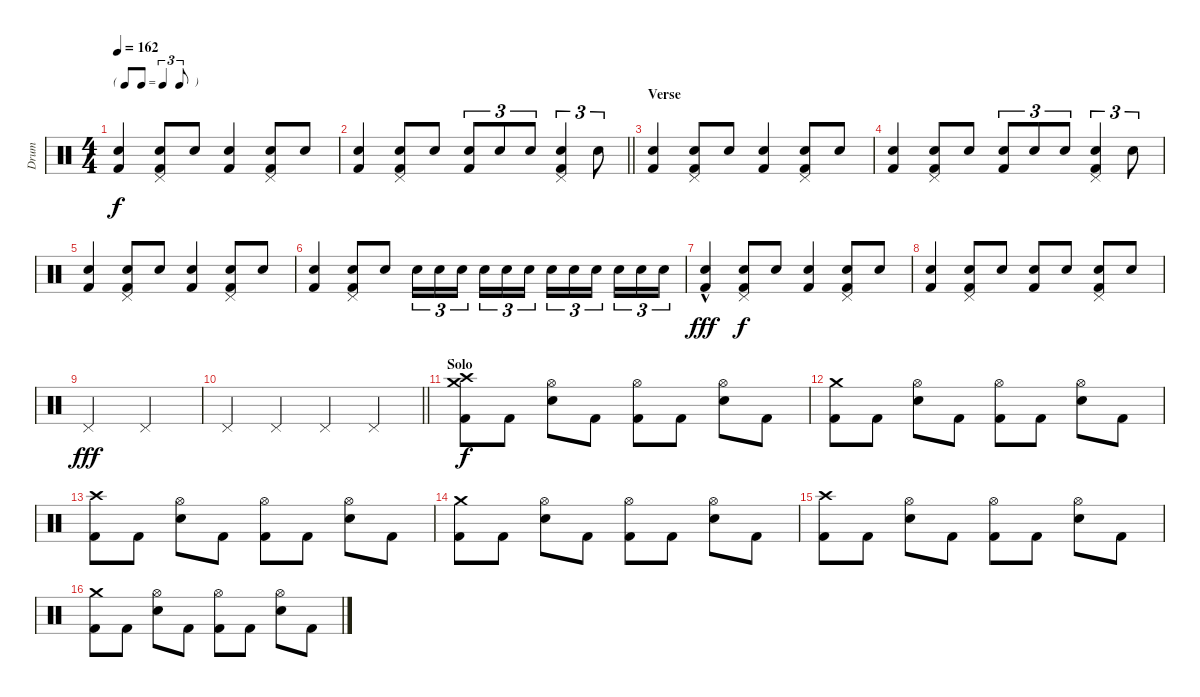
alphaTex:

\track ("Drum" "Drum") {instrument percussion}
\staff {score}
\articulation defaults
\ts (4 4)
\tf triplet8th
\tempo 162
\clef neutral
\ks c
("Snare (hit) 2" "Kick (hit) 2").4{dy f} ("Pedal Hi-Hat (hit)" "Snare (hit) 2" "Kick (hit) 2").8 "Snare (hit) 2".8 ("Snare (hit) 2" "Kick (hit) 2").4 ("Pedal Hi-Hat (hit)" "Snare (hit) 2" "Kick (hit) 2").8 "Snare (hit) 2".8 |
\barLineRight lightlight
("Snare (hit) 2" "Kick (hit) 2").4 ("Pedal Hi-Hat (hit)" "Snare (hit) 2" "Kick (hit) 2").8 "Snare (hit) 2".8 ("Snare (hit) 2" "Kick (hit) 2").8{tu (3 2)} "Snare (hit) 2".8{tu (3 2)} "Snare (hit) 2".8{tu (3 2)} ("Pedal Hi-Hat (hit)" "Snare (hit) 2" "Kick (hit) 2").4{tu (3 2)} "Snare (hit) 2".8{tu (3 2)} |
\section ("" "Verse")
("Snare (hit) 2" "Kick (hit) 2").4 ("Pedal Hi-Hat (hit)" "Snare (hit) 2" "Kick (hit) 2").8 "Snare (hit) 2".8 ("Snare (hit) 2" "Kick (hit) 2").4 ("Pedal Hi-Hat (hit)" "Snare (hit) 2" "Kick (hit) 2").8 "Snare (hit) 2".8 |
("Snare (hit) 2" "Kick (hit) 2").4 ("Pedal Hi-Hat (hit)" "Snare (hit) 2" "Kick (hit) 2").8 "Snare (hit) 2".8 ("Snare (hit) 2" "Kick (hit) 2").8{tu (3 2)} "Snare (hit) 2".8{tu (3 2)} "Snare (hit) 2".8{tu (3 2)} ("Pedal Hi-Hat (hit)" "Snare (hit) 2" "Kick (hit) 2").4{tu (3 2)} "Snare (hit) 2".8{tu (3 2)} |
("Snare (hit) 2" "Kick (hit) 2").4 ("Pedal Hi-Hat (hit)" "Snare (hit) 2" "Kick (hit) 2").8 "Snare (hit) 2".8 ("Snare (hit) 2" "Kick (hit) 2").4 ("Pedal Hi-Hat (hit)" "Snare (hit) 2" "Kick (hit) 2").8 "Snare (hit) 2".8 |
("Snare (hit) 2" "Kick (hit) 2").4 ("Pedal Hi-Hat (hit)" "Snare (hit) 2" "Kick (hit) 2").8 "Snare (hit) 2".8 "Snare (hit) 2".16{tu (3 2)} "Snare (hit) 2".16{tu (3 2)} "Snare (hit) 2".16{tu (3 2) beam splitsecondary} "Snare (hit) 2".16{tu (3 2)} "Snare (hit) 2".16{tu (3 2)} "Snare (hit) 2".16{tu (3 2)} "Snare (hit) 2".16{tu (3 2)} "Snare (hit) 2".16{tu (3 2)} "Snare (hit) 2".16{tu (3 2) beam splitsecondary} "Snare (hit) 2".16{tu (3 2)} "Snare (hit) 2".16{tu (3 2)} "Snare (hit) 2".16{tu (3 2)} |
("Snare (hit) 2"{hac} "Kick (hit) 2"{hac}).4{dy fff} ("Pedal Hi-Hat (hit)" "Snare (hit) 2" "Kick (hit) 2").8{dy f} "Snare (hit) 2".8 ("Snare (hit) 2" "Kick (hit) 2").4 ("Pedal Hi-Hat (hit)" "Snare (hit) 2" "Kick (hit) 2").8 "Snare (hit) 2".8 |
("Snare (hit) 2" "Kick (hit) 2").4 ("Pedal Hi-Hat (hit)" "Snare (hit) 2" "Kick (hit) 2").8 "Snare (hit) 2".8 ("Snare (hit) 2" "Kick (hit) 2").8 "Snare (hit) 2".8 ("Pedal Hi-Hat (hit)" "Snare (hit) 2" "Kick (hit) 2").8 "Snare (hit) 2".8 |
"Pedal Hi-Hat (hit)".2{dy fff} "Pedal Hi-Hat (hit)".2 |
\barLineRight lightlight "Pedal Hi-Hat (hit)".4 "Pedal Hi-Hat (hit)".4 "Pedal Hi-Hat (hit)".4 "Pedal Hi-Hat (hit)".4
|
\section ("" "Solo")
("Crash medium (hit)" "Crash high (hit)" "Kick (hit) 2").8{dy f} "Kick (hit) 2".8 ("Hi-Hat (open)" "Snare (hit) 2").8 "Kick (hit) 2".8 ("Hi-Hat (open)" "Kick (hit) 2").8 "Kick (hit) 2".8 ("Hi-Hat (open)" "Snare (hit) 2").8 "Kick (hit) 2".8 |
("Crash medium (hit)" "Kick (hit) 2").8 "Kick (hit) 2".8 ("Hi-Hat (open)" "Snare (hit) 2").8 "Kick (hit) 2".8 ("Hi-Hat (open)" "Kick (hit) 2").8 "Kick (hit) 2".8 ("Hi-Hat (open)" "Snare (hit) 2").8 "Kick (hit) 2".8 |
("Crash high (hit)" "Kick (hit) 2").8 "Kick (hit) 2".8 ("Hi-Hat (open)" "Snare (hit) 2").8 "Kick (hit) 2".8 ("Hi-Hat (open)" "Kick (hit) 2").8 "Kick (hit) 2".8 ("Hi-Hat (open)" "Snare (hit) 2").8 "Kick (hit) 2".8 |
("Crash medium (hit)" "Kick (hit) 2").8 "Kick (hit) 2".8 ("Hi-Hat (open)" "Snare (hit) 2").8 "Kick (hit) 2".8 ("Hi-Hat (open)" "Kick (hit) 2").8 "Kick (hit) 2".8 ("Hi-Hat (open)" "Snare (hit) 2").8 "Kick (hit) 2".8 |
("Crash high (hit)" "Kick (hit) 2").8 "Kick (hit) 2".8 ("Hi-Hat (open)" "Snare (hit) 2").8 "Kick (hit) 2".8 ("Hi-Hat (open)" "Kick (hit) 2").8 "Kick (hit) 2".8 ("Hi-Hat (open)" "Snare (hit) 2").8 "Kick (hit) 2".8 |
("Crash medium (hit)" "Kick (hit) 2").8 "Kick (hit) 2".8 ("Hi-Hat (open)" "Snare (hit) 2").8 "Kick (hit) 2".8 ("Hi-Hat (open)" "Kick (hit) 2").8 "Kick (hit) 2".8 ("Hi-Hat (open)" "Snare (hit) 2").8 "Kick (hit) 2".8
